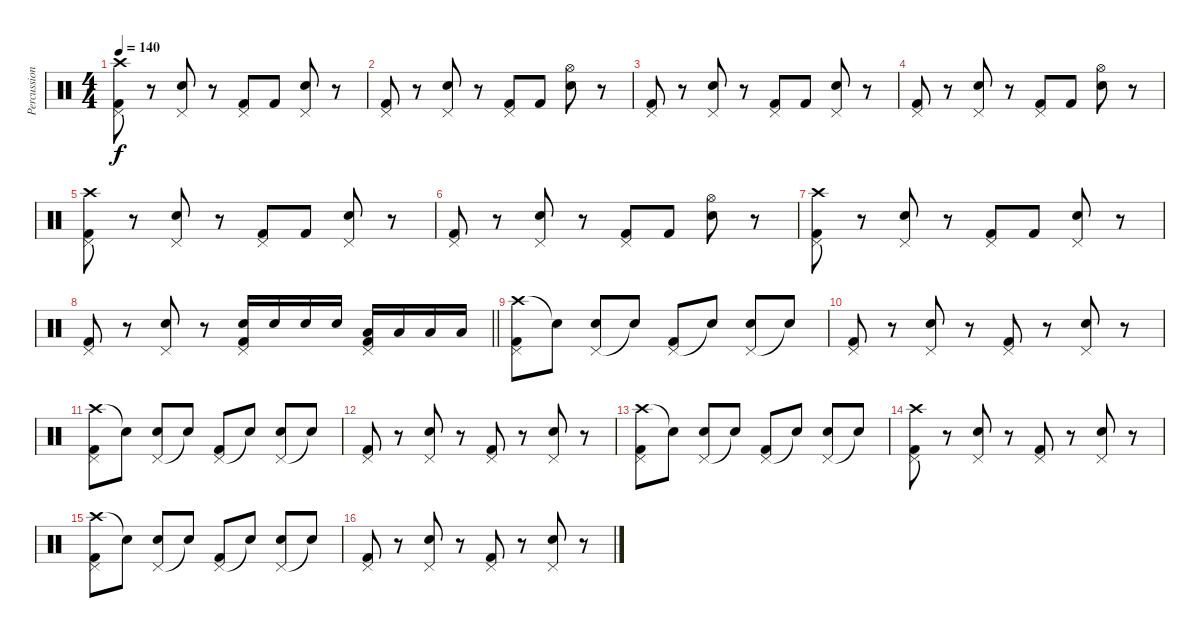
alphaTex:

\track ("Percussion" "Percussion") {instrument percussion}
\staff {score}
\articulation defaults
\ts (4 4)
\tempo 140
\clef neutral
\ks c
("Crash high (hit)" "Pedal Hi-Hat (hit)" "Kick (hit) 2").8{dy f} r.8 ("Pedal Hi-Hat (hit)" "Electric Snare (hit)").8 r.8 ("Pedal Hi-Hat (hit)" "Kick (hit) 2").8 "Kick (hit) 2".8 ("Pedal Hi-Hat (hit)" "Electric Snare (hit)").8 r.8 |
("Pedal Hi-Hat (hit)" "Kick (hit) 2").8 r.8 ("Pedal Hi-Hat (hit)" "Electric Snare (hit)").8 r.8 ("Pedal Hi-Hat (hit)" "Kick (hit) 2").8 "Kick (hit) 2".8 ("Hi-Hat (open)" "Electric Snare (hit)").8 r.8 |
("Pedal Hi-Hat (hit)" "Kick (hit) 2").8 r.8 ("Pedal Hi-Hat (hit)" "Electric Snare (hit)").8 r.8 ("Pedal Hi-Hat (hit)" "Kick (hit) 2").8 "Kick (hit) 2".8 ("Pedal Hi-Hat (hit)" "Electric Snare (hit)").8 r.8 |
("Pedal Hi-Hat (hit)" "Kick (hit) 2").8 r.8 ("Pedal Hi-Hat (hit)" "Electric Snare (hit)").8 r.8 ("Pedal Hi-Hat (hit)" "Kick (hit) 2").8 "Kick (hit) 2".8 ("Hi-Hat (open)" "Electric Snare (hit)").8 r.8 |
("Crash high (hit)" "Pedal Hi-Hat (hit)" "Kick (hit) 2").8 r.8 ("Pedal Hi-Hat (hit)" "Electric Snare (hit)").8 r.8 ("Pedal Hi-Hat (hit)" "Kick (hit) 2").8 "Kick (hit) 2".8 ("Pedal Hi-Hat (hit)" "Electric Snare (hit)").8 r.8 |
("Pedal Hi-Hat (hit)" "Kick (hit) 2").8 r.8 ("Pedal Hi-Hat (hit)" "Electric Snare (hit)").8 r.8 ("Pedal Hi-Hat (hit)" "Kick (hit) 2").8 "Kick (hit) 2".8 ("Hi-Hat (open)" "Electric Snare (hit)").8 r.8 |
("Crash high (hit)" "Pedal Hi-Hat (hit)" "Kick (hit) 2").8 r.8 ("Pedal Hi-Hat (hit)" "Electric Snare (hit)").8 r.8 ("Pedal Hi-Hat (hit)" "Kick (hit) 2").8 "Kick (hit) 2".8 ("Pedal Hi-Hat (hit)" "Electric Snare (hit)").8 r.8 |
\barLineRight lightlight
("Pedal Hi-Hat (hit)" "Kick (hit) 2").8 r.8 ("Pedal Hi-Hat (hit)" "Electric Snare (hit)").8 r.8 ("Pedal Hi-Hat (hit)" "Electric Snare (hit)" "Kick (hit) 2").16 "Electric Snare (hit)".16 "Electric Snare (hit)".16 "Electric Snare (hit)".16 ("Pedal Hi-Hat (hit)" "Low Tom (hit)" "Kick (hit) 2").16 "Low Tom (hit)".16 "Low Tom (hit)".16 "Low Tom (hit)".16 |
("Crash high (hit)" "Pedal Hi-Hat (hit)" "Kick (hit) 2").8 "Snare (hit)"{t}.8 ("Pedal Hi-Hat (hit)" "Electric Snare (hit)").8 "Snare (hit)"{t}.8 ("Pedal Hi-Hat (hit)" "Kick (hit) 2").8 "Snare (hit)"{t}.8 ("Pedal Hi-Hat (hit)" "Electric Snare (hit)").8 "Snare (hit)"{t}.8 |
("Pedal Hi-Hat (hit)" "Kick (hit) 2").8 r.8 ("Pedal Hi-Hat (hit)" "Electric Snare (hit)").8 r.8 ("Pedal Hi-Hat (hit)" "Kick (hit) 2").8 r.8 ("Pedal Hi-Hat (hit)" "Electric Snare (hit)").8 r.8 |
("Crash high (hit)" "Pedal Hi-Hat (hit)" "Kick (hit) 2").8 "Snare (hit)"{t}.8 ("Pedal Hi-Hat (hit)" "Electric Snare (hit)").8 "Snare (hit)"{t}.8 ("Pedal Hi-Hat (hit)" "Kick (hit) 2").8 "Snare (hit)"{t}.8 ("Pedal Hi-Hat (hit)" "Electric Snare (hit)").8 "Snare (hit)"{t}.8 |
("Pedal Hi-Hat (hit)" "Kick (hit) 2").8 r.8 ("Pedal Hi-Hat (hit)" "Electric Snare (hit)").8 r.8 ("Pedal Hi-Hat (hit)" "Kick (hit) 2").8 r.8 ("Pedal Hi-Hat (hit)" "Electric Snare (hit)").8 r.8 |
("Crash high (hit)" "Pedal Hi-Hat (hit)" "Kick (hit) 2").8 "Snare (hit)"{t}.8 ("Pedal Hi-Hat (hit)" "Electric Snare (hit)").8 "Snare (hit)"{t}.8 ("Pedal Hi-Hat (hit)" "Kick (hit) 2").8 "Snare (hit)"{t}.8 ("Pedal Hi-Hat (hit)" "Electric Snare (hit)").8 "Snare (hit)"{t}.8 |
("Crash high (hit)" "Pedal Hi-Hat (hit)" "Kick (hit) 2").8 r.8 ("Pedal Hi-Hat (hit)" "Electric Snare (hit)").8 r.8 ("Pedal Hi-Hat (hit)" "Kick (hit) 2").8 r.8 ("Pedal Hi-Hat (hit)" "Electric Snare (hit)").8 r.8 |
("Crash high (hit)" "Pedal Hi-Hat (hit)" "Kick (hit) 2").8 "Snare (hit)"{t}.8 ("Pedal Hi-Hat (hit)" "Electric Snare (hit)").8 "Snare (hit)"{t}.8 ("Pedal Hi-Hat (hit)" "Kick (hit) 2").8 "Snare (hit)"{t}.8 ("Pedal Hi-Hat (hit)" "Electric Snare (hit)").8 "Snare (hit)"{t}.8 |
("Pedal Hi-Hat (hit)" "Kick (hit) 2").8 r.8 ("Pedal Hi-Hat (hit)" "Electric Snare (hit)").8 r.8 ("Pedal Hi-Hat (hit)" "Kick (hit) 2").8 r.8 ("Pedal Hi-Hat (hit)" "Electric Snare (hit)").8 r.8
